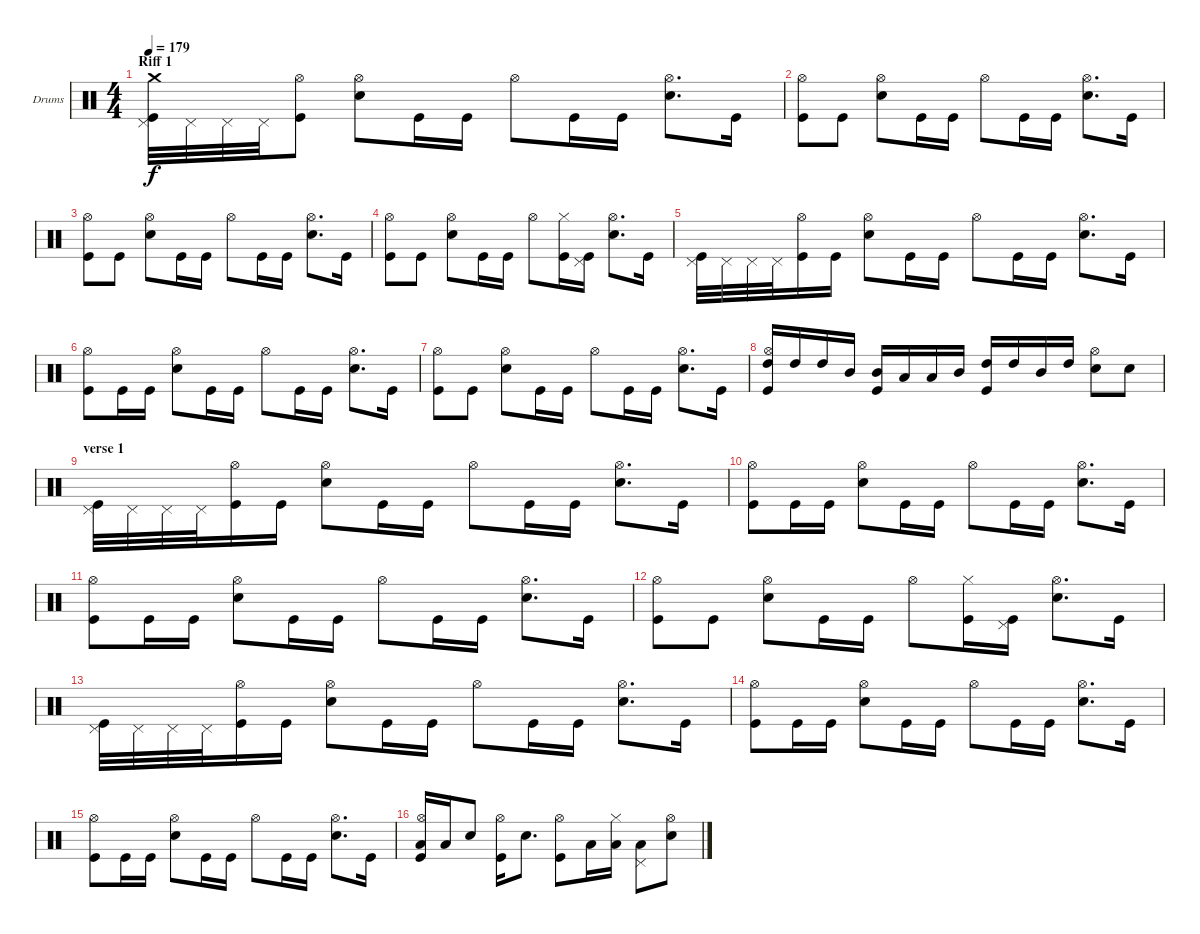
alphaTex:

\bracketExtendMode groupsimilarinstruments
\firstSystemTrackNameOrientation horizontal
\otherSystemsTrackNameOrientation horizontal
\track ("Drumkit" "Drums") {multiBarRest instrument percussion}
\staff {score}
\articulation defaults
\ts (4 4)
\section ("" "Riff 1")
\tempo 179
\clef neutral
\ks c
("Pedal Hi-Hat (hit)" "Crash medium (hit)" "Kick (hit)").32{dy f} "Pedal Hi-Hat (hit)".32 "Pedal Hi-Hat (hit)".32 "Pedal Hi-Hat (hit)".32 ("Hi-Hat (open)" "Kick (hit)").8 ("Hi-Hat (open)" "Snare (hit) 2").8 "Kick (hit)".16 "Kick (hit)".16 "Hi-Hat (open)".8 "Kick (hit)".16 "Kick (hit)".16 ("Hi-Hat (open)" "Snare (hit) 2").8{d} "Kick (hit)".16 |
("Hi-Hat (open)" "Kick (hit)").8 "Kick (hit)".8 ("Hi-Hat (open)" "Snare (hit) 2").8 "Kick (hit)".16 "Kick (hit)".16 "Hi-Hat (open)".8 "Kick (hit)".16 "Kick (hit)".16 ("Hi-Hat (open)" "Snare (hit) 2").8{d} "Kick (hit)".16 |
("Hi-Hat (open)" "Kick (hit)").8 "Kick (hit)".8 ("Hi-Hat (open)" "Snare (hit) 2").8 "Kick (hit)".16 "Kick (hit)".16 "Hi-Hat (open)".8 "Kick (hit)".16 "Kick (hit)".16 ("Hi-Hat (open)" "Snare (hit) 2").8{d} "Kick (hit)".16 |
("Hi-Hat (open)" "Kick (hit)").8 "Kick (hit)".8 ("Hi-Hat (open)" "Snare (hit) 2").8 "Kick (hit)".16 "Kick (hit)".16 "Hi-Hat (open)".8 ("Hi-Hat (closed)" "Kick (hit)").16 ("Pedal Hi-Hat (hit)" "Kick (hit)").16 ("Hi-Hat (open)" "Snare (hit) 2").8{d} "Kick (hit)".16 |
("Pedal Hi-Hat (hit)" "Kick (hit)").32 "Pedal Hi-Hat (hit)".32 "Pedal Hi-Hat (hit)".32 "Pedal Hi-Hat (hit)".32 ("Hi-Hat (open)" "Kick (hit)").16 "Kick (hit)".16 ("Hi-Hat (open)" "Snare (hit) 2").8 "Kick (hit)".16 "Kick (hit)".16 "Hi-Hat (open)".8 "Kick (hit)".16 "Kick (hit)".16 ("Hi-Hat (open)" "Snare (hit) 2").8{d} "Kick (hit)".16 |
("Hi-Hat (open)" "Kick (hit)").8 "Kick (hit)".16 "Kick (hit)".16 ("Hi-Hat (open)" "Snare (hit) 2").8 "Kick (hit)".16 "Kick (hit)".16 "Hi-Hat (open)".8 "Kick (hit)".16 "Kick (hit)".16 ("Hi-Hat (open)" "Snare (hit) 2").8{d} "Kick (hit)".16 |
("Hi-Hat (open)" "Kick (hit)").8 "Kick (hit)".8 ("Hi-Hat (open)" "Snare (hit) 2").8 "Kick (hit)".16 "Kick (hit)".16 "Hi-Hat (open)".8 "Kick (hit)".16 "Kick (hit)".16 ("Hi-Hat (open)" "Snare (hit) 2").8{d} "Kick (hit)".16 |
("Hi-Hat (open)" "High Tom (hit)" "Kick (hit)").16 "High Tom (hit)".16 "High Tom (hit)".16 "Mid Tom (hit)".16 ("Mid Tom (hit)" "Kick (hit)").16 "Low Tom (hit)".16 "Low Tom (hit)".16 "Mid Tom (hit)".16 ("High Tom (hit)" "Kick (hit)").16 "High Tom (hit)".16 "Mid Tom (hit)".16 "High Tom (hit)".16 ("Hi-Hat (open)" "Snare (hit) 2").8 "Snare (hit) 2".8 |
\section ("" "verse 1")
("Pedal Hi-Hat (hit)" "Kick (hit)").32 "Pedal Hi-Hat (hit)".32 "Pedal Hi-Hat (hit)".32 "Pedal Hi-Hat (hit)".32 ("Hi-Hat (open)" "Kick (hit)").16 "Kick (hit)".16 ("Hi-Hat (open)" "Snare (hit) 2").8 "Kick (hit)".16 "Kick (hit)".16 "Hi-Hat (open)".8 "Kick (hit)".16 "Kick (hit)".16 ("Hi-Hat (open)" "Snare (hit) 2").8{d} "Kick (hit)".16 |
("Hi-Hat (open)" "Kick (hit)").8 "Kick (hit)".16 "Kick (hit)".16 ("Hi-Hat (open)" "Snare (hit) 2").8 "Kick (hit)".16 "Kick (hit)".16 "Hi-Hat (open)".8 "Kick (hit)".16 "Kick (hit)".16 ("Hi-Hat (open)" "Snare (hit) 2").8{d} "Kick (hit)".16 |
("Hi-Hat (open)" "Kick (hit)").8 "Kick (hit)".16 "Kick (hit)".16 ("Hi-Hat (open)" "Snare (hit) 2").8 "Kick (hit)".16 "Kick (hit)".16 "Hi-Hat (open)".8 "Kick (hit)".16 "Kick (hit)".16 ("Hi-Hat (open)" "Snare (hit) 2").8{d} "Kick (hit)".16 |
("Hi-Hat (open)" "Kick (hit)").8 "Kick (hit)".8 ("Hi-Hat (open)" "Snare (hit) 2").8 "Kick (hit)".16 "Kick (hit)".16 "Hi-Hat (open)".8 ("Hi-Hat (closed)" "Kick (hit)").16 ("Pedal Hi-Hat (hit)" "Kick (hit)").16 ("Hi-Hat (open)" "Snare (hit) 2").8{d} "Kick (hit)".16 |
("Pedal Hi-Hat (hit)" "Kick (hit)").32 "Pedal Hi-Hat (hit)".32 "Pedal Hi-Hat (hit)".32 "Pedal Hi-Hat (hit)".32 ("Hi-Hat (open)" "Kick (hit)").16 "Kick (hit)".16 ("Hi-Hat (open)" "Snare (hit) 2").8 "Kick (hit)".16 "Kick (hit)".16 "Hi-Hat (open)".8 "Kick (hit)".16 "Kick (hit)".16 ("Hi-Hat (open)" "Snare (hit) 2").8{d} "Kick (hit)".16 |
("Hi-Hat (open)" "Kick (hit)").8 "Kick (hit)".16 "Kick (hit)".16 ("Hi-Hat (open)" "Snare (hit) 2").8 "Kick (hit)".16 "Kick (hit)".16 "Hi-Hat (open)".8 "Kick (hit)".16 "Kick (hit)".16 ("Hi-Hat (open)" "Snare (hit) 2").8{d} "Kick (hit)".16 |
("Hi-Hat (open)" "Kick (hit)").8 "Kick (hit)".16 "Kick (hit)".16 ("Hi-Hat (open)" "Snare (hit) 2").8 "Kick (hit)".16 "Kick (hit)".16 "Hi-Hat (open)".8 "Kick (hit)".16 "Kick (hit)".16 ("Hi-Hat (open)" "Snare (hit) 2").8{d} "Kick (hit)".16 |
("Hi-Hat (open)" "Low Tom (hit)" "Kick (hit)").16 "Low Tom (hit)".16 "Snare (hit) 2".8 ("Hi-Hat (open)" "Kick (hit)").16 "Snare (hit) 2".8{d} ("Hi-Hat (open)" "Kick (hit)").8 "Low Tom (hit)".16 ("Hi-Hat (closed)" "Low Tom (hit)").16 ("Pedal Hi-Hat (hit)" "Low Tom (hit)").8 ("Hi-Hat (open)" "Snare (hit) 2").8
